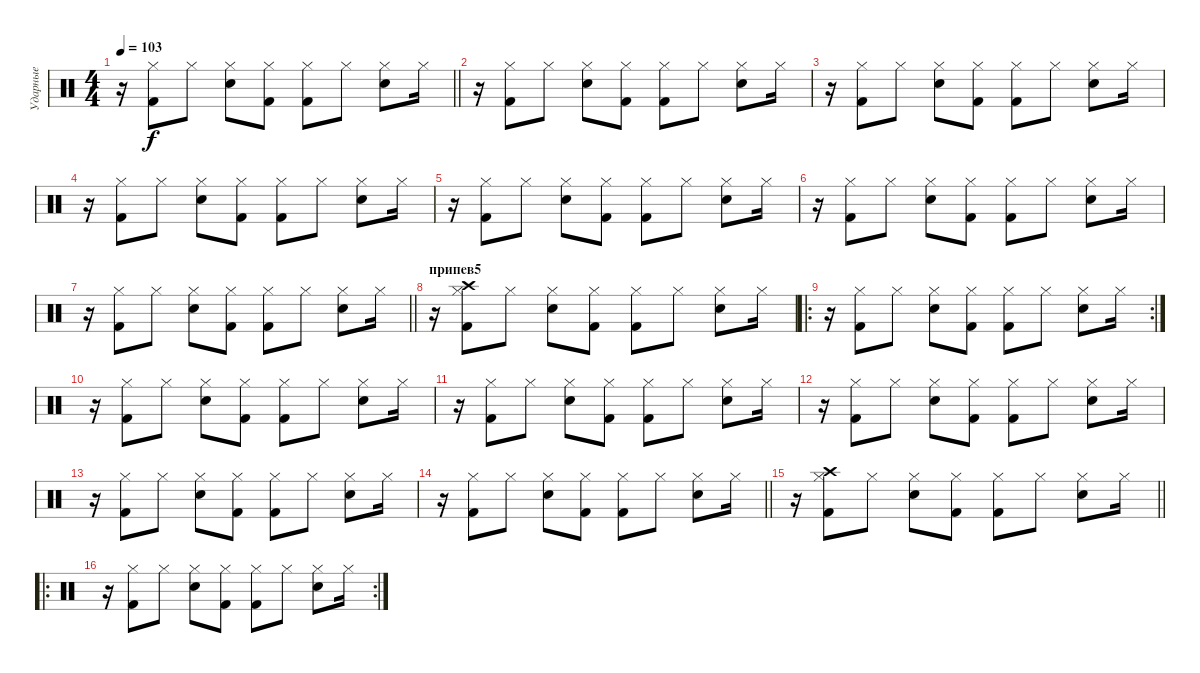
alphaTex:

\track ("Ударные" "Ударные") {instrument percussion}
\staff {score}
\articulation defaults
\ts (4 4)
\tempo 103
\clef neutral
\barLineRight lightlight
\ks c
r.16{dy f} ("Hi-Hat (closed)" "Kick (hit) 2").8 "Hi-Hat (closed)".8 ("Hi-Hat (closed)" "Electric Snare (hit)").8 ("Hi-Hat (closed)" "Kick (hit) 2").8 ("Hi-Hat (closed)" "Kick (hit) 2").8 "Hi-Hat (closed)".8 ("Hi-Hat (closed)" "Electric Snare (hit)").8 "Hi-Hat (closed)".16 |
r.16 ("Hi-Hat (closed)" "Kick (hit) 2").8 "Hi-Hat (closed)".8 ("Hi-Hat (closed)" "Electric Snare (hit)").8 ("Hi-Hat (closed)" "Kick (hit) 2").8 ("Hi-Hat (closed)" "Kick (hit) 2").8 "Hi-Hat (closed)".8 ("Hi-Hat (closed)" "Electric Snare (hit)").8 "Hi-Hat (closed)".16 |
r.16 ("Hi-Hat (closed)" "Kick (hit) 2").8 "Hi-Hat (closed)".8 ("Hi-Hat (closed)" "Electric Snare (hit)").8 ("Hi-Hat (closed)" "Kick (hit) 2").8 ("Hi-Hat (closed)" "Kick (hit) 2").8 "Hi-Hat (closed)".8 ("Hi-Hat (closed)" "Electric Snare (hit)").8 "Hi-Hat (closed)".16 |
r.16 ("Hi-Hat (closed)" "Kick (hit) 2").8 "Hi-Hat (closed)".8 ("Hi-Hat (closed)" "Electric Snare (hit)").8 ("Hi-Hat (closed)" "Kick (hit) 2").8 ("Hi-Hat (closed)" "Kick (hit) 2").8 "Hi-Hat (closed)".8 ("Hi-Hat (closed)" "Electric Snare (hit)").8 "Hi-Hat (closed)".16 |
r.16 ("Hi-Hat (closed)" "Kick (hit) 2").8 "Hi-Hat (closed)".8 ("Hi-Hat (closed)" "Electric Snare (hit)").8 ("Hi-Hat (closed)" "Kick (hit) 2").8 ("Hi-Hat (closed)" "Kick (hit) 2").8 "Hi-Hat (closed)".8 ("Hi-Hat (closed)" "Electric Snare (hit)").8 "Hi-Hat (closed)".16 |
r.16 ("Hi-Hat (closed)" "Kick (hit) 2").8 "Hi-Hat (closed)".8 ("Hi-Hat (closed)" "Electric Snare (hit)").8 ("Hi-Hat (closed)" "Kick (hit) 2").8 ("Hi-Hat (closed)" "Kick (hit) 2").8 "Hi-Hat (closed)".8 ("Hi-Hat (closed)" "Electric Snare (hit)").8 "Hi-Hat (closed)".16 |
\barLineRight lightlight
r.16 ("Hi-Hat (closed)" "Kick (hit) 2").8 "Hi-Hat (closed)".8 ("Hi-Hat (closed)" "Electric Snare (hit)").8 ("Hi-Hat (closed)" "Kick (hit) 2").8 ("Hi-Hat (closed)" "Kick (hit) 2").8 "Hi-Hat (closed)".8 ("Hi-Hat (closed)" "Electric Snare (hit)").8 "Hi-Hat (closed)".16 |
\section ("" "припев5")
r.16 ("Hi-Hat (closed)" "Kick (hit) 2" "Crash high (hit)").8 "Hi-Hat (closed)".8 ("Hi-Hat (closed)" "Electric Snare (hit)").8 ("Hi-Hat (closed)" "Kick (hit) 2").8 ("Hi-Hat (closed)" "Kick (hit) 2").8 "Hi-Hat (closed)".8 ("Hi-Hat (closed)" "Electric Snare (hit)").8 "Hi-Hat (closed)".16 |
\ro
\rc 2
r.16 ("Hi-Hat (closed)" "Kick (hit) 2").8 "Hi-Hat (closed)".8 ("Hi-Hat (closed)" "Electric Snare (hit)").8 ("Hi-Hat (closed)" "Kick (hit) 2").8 ("Hi-Hat (closed)" "Kick (hit) 2").8 "Hi-Hat (closed)".8 ("Hi-Hat (closed)" "Electric Snare (hit)").8 "Hi-Hat (closed)".16 |
r.16 ("Hi-Hat (closed)" "Kick (hit) 2").8 "Hi-Hat (closed)".8 ("Hi-Hat (closed)" "Electric Snare (hit)").8 ("Hi-Hat (closed)" "Kick (hit) 2").8 ("Hi-Hat (closed)" "Kick (hit) 2").8 "Hi-Hat (closed)".8 ("Hi-Hat (closed)" "Electric Snare (hit)").8 "Hi-Hat (closed)".16 |
r.16 ("Hi-Hat (closed)" "Kick (hit) 2").8 "Hi-Hat (closed)".8 ("Hi-Hat (closed)" "Electric Snare (hit)").8 ("Hi-Hat (closed)" "Kick (hit) 2").8 ("Hi-Hat (closed)" "Kick (hit) 2").8 "Hi-Hat (closed)".8 ("Hi-Hat (closed)" "Electric Snare (hit)").8 "Hi-Hat (closed)".16 |
r.16 ("Hi-Hat (closed)" "Kick (hit) 2").8 "Hi-Hat (closed)".8 ("Hi-Hat (closed)" "Electric Snare (hit)").8 ("Hi-Hat (closed)" "Kick (hit) 2").8 ("Hi-Hat (closed)" "Kick (hit) 2").8 "Hi-Hat (closed)".8 ("Hi-Hat (closed)" "Electric Snare (hit)").8 "Hi-Hat (closed)".16 |
r.16 ("Hi-Hat (closed)" "Kick (hit) 2").8 "Hi-Hat (closed)".8 ("Hi-Hat (closed)" "Electric Snare (hit)").8 ("Hi-Hat (closed)" "Kick (hit) 2").8 ("Hi-Hat (closed)" "Kick (hit) 2").8 "Hi-Hat (closed)".8 ("Hi-Hat (closed)" "Electric Snare (hit)").8 "Hi-Hat (closed)".16 |
\barLineRight lightlight
r.16 ("Hi-Hat (closed)" "Kick (hit) 2").8 "Hi-Hat (closed)".8 ("Hi-Hat (closed)" "Electric Snare (hit)").8 ("Hi-Hat (closed)" "Kick (hit) 2").8 ("Hi-Hat (closed)" "Kick (hit) 2").8 "Hi-Hat (closed)".8 ("Hi-Hat (closed)" "Electric Snare (hit)").8 "Hi-Hat (closed)".16 |
\barLineRight lightlight
r.16 ("Hi-Hat (closed)" "Kick (hit) 2" "Crash high (hit)").8 "Hi-Hat (closed)".8 ("Hi-Hat (closed)" "Electric Snare (hit)").8 ("Hi-Hat (closed)" "Kick (hit) 2").8 ("Hi-Hat (closed)" "Kick (hit) 2").8 "Hi-Hat (closed)".8 ("Hi-Hat (closed)" "Electric Snare (hit)").8 "Hi-Hat (closed)".16 |
\ro
\rc 2
r.16 ("Hi-Hat (closed)" "Kick (hit) 2").8 "Hi-Hat (closed)".8 ("Hi-Hat (closed)" "Electric Snare (hit)").8 ("Hi-Hat (closed)" "Kick (hit) 2").8 ("Hi-Hat (closed)" "Kick (hit) 2").8 "Hi-Hat (closed)".8 ("Hi-Hat (closed)" "Electric Snare (hit)").8 "Hi-Hat (closed)".16
